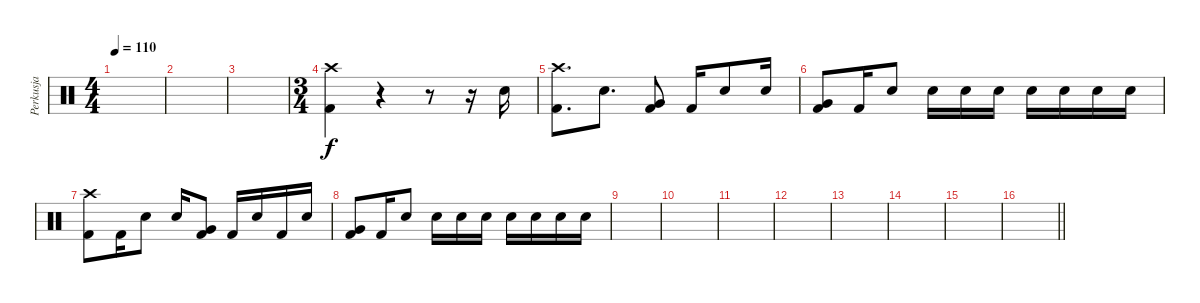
\track ("Perkusja" "Perkusja") {instrument percussion}
\staff {score}
\articulation defaults
\ts (4 4)
\tempo 110
\clef neutral
\ks c
|
|
|
\ts (3 4)
("Kick (hit) 2" "Crash high (hit)").4 r.4 r.8 r.16 "Snare (hit) 2".16 |
("Kick (hit) 2" "Crash high (hit)").8{d} "Snare (hit) 2".8{d} ("Kick (hit) 2" "Very Low Tom (hit)").8 "Kick (hit) 2".16 "Snare (hit) 2".8 "Snare (hit) 2".16 |
("Kick (hit) 2" "Very Low Tom (hit)").8 "Kick (hit) 2".16 "Snare (hit) 2".8 "Snare (hit) 2".16 "Snare (hit) 2".16 "Snare (hit) 2".16 "Snare (hit) 2".16 "Snare (hit) 2".16 "Snare (hit) 2".16 "Snare (hit) 2".16 |
("Kick (hit) 2" "Crash high (hit)").8 "Kick (hit) 2".16 "Snare (hit) 2".8 "Snare (hit) 2".16 ("Kick (hit) 2" "Very Low Tom (hit)").8 "Kick (hit) 2".16 "Snare (hit) 2".16 "Kick (hit) 2".16 "Snare (hit) 2".16 |
("Kick (hit) 2" "Very Low Tom (hit)").8 "Kick (hit) 2".16 "Snare (hit) 2".8 "Snare (hit) 2".16 "Snare (hit) 2".16 "Snare (hit) 2".16 "Snare (hit) 2".16 "Snare (hit) 2".16 "Snare (hit) 2".16 "Snare (hit) 2".16 |
|
|
|
|
|
|
|
\barLineRight lightlight
